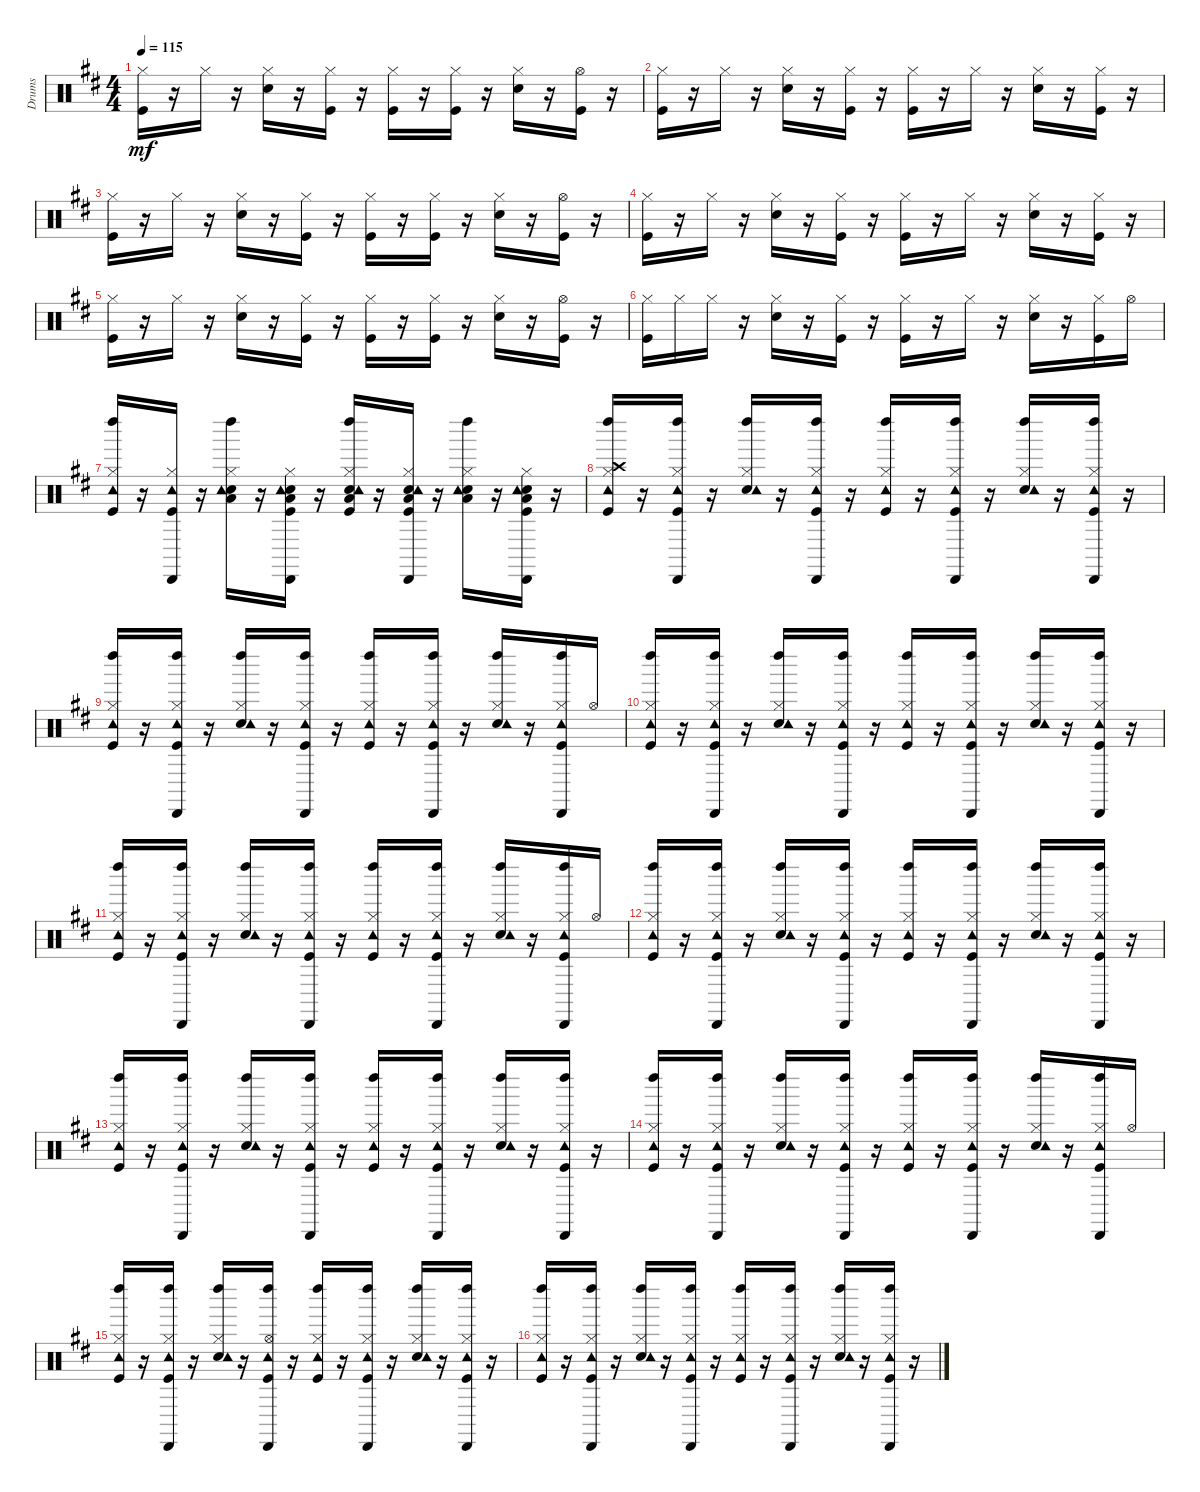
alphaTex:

\track ("Drums" "Drums") {instrument percussion}
\staff {score}
\articulation defaults
\ts (4 4)
\tempo 115
\clef neutral
\ks bminor
("Kick (hit)" "Hi-Hat (closed)").16{dy mf} r.16 "Hi-Hat (closed)".16 r.16 ("Snare (hit) 2" "Hi-Hat (closed)").16 r.16 ("Kick (hit)" "Hi-Hat (closed)").16 r.16 ("Kick (hit)" "Hi-Hat (closed)").16 r.16 ("Kick (hit)" "Hi-Hat (closed)").16 r.16 ("Snare (hit) 2" "Hi-Hat (closed)").16 r.16 ("Kick (hit)" "Hi-Hat (open)").16 r.16 |
("Kick (hit)" "Hi-Hat (closed)").16 r.16 "Hi-Hat (closed)".16 r.16 ("Snare (hit) 2" "Hi-Hat (closed)").16 r.16 ("Kick (hit)" "Hi-Hat (closed)").16 r.16 ("Kick (hit)" "Hi-Hat (closed)").16 r.16 "Hi-Hat (closed)".16 r.16 ("Snare (hit) 2" "Hi-Hat (closed)").16 r.16 ("Kick (hit)" "Hi-Hat (closed)").16 r.16 |
("Kick (hit)" "Hi-Hat (closed)").16 r.16 "Hi-Hat (closed)".16 r.16 ("Snare (hit) 2" "Hi-Hat (closed)").16 r.16 ("Kick (hit)" "Hi-Hat (closed)").16 r.16 ("Kick (hit)" "Hi-Hat (closed)").16 r.16 ("Kick (hit)" "Hi-Hat (closed)").16 r.16 ("Snare (hit) 2" "Hi-Hat (closed)").16 r.16 ("Kick (hit)" "Hi-Hat (open)").16 r.16 |
("Kick (hit)" "Hi-Hat (closed)").16 r.16 "Hi-Hat (closed)".16 r.16 ("Snare (hit) 2" "Hi-Hat (closed)").16 r.16 ("Kick (hit)" "Hi-Hat (closed)").16 r.16 ("Kick (hit)" "Hi-Hat (closed)").16 r.16 "Hi-Hat (closed)".16 r.16 ("Snare (hit) 2" "Hi-Hat (closed)").16 r.16 ("Kick (hit)" "Hi-Hat (closed)").16 r.16 |
("Kick (hit)" "Hi-Hat (closed)").16 r.16 "Hi-Hat (closed)".16 r.16 ("Snare (hit) 2" "Hi-Hat (closed)").16 r.16 ("Kick (hit)" "Hi-Hat (closed)").16 r.16 ("Kick (hit)" "Hi-Hat (closed)").16 r.16 ("Kick (hit)" "Hi-Hat (closed)").16 r.16 ("Snare (hit) 2" "Hi-Hat (closed)").16 r.16 ("Kick (hit)" "Hi-Hat (open)").16 r.16 |
("Kick (hit)" "Hi-Hat (closed)").16 "Hi-Hat (closed)".16 "Hi-Hat (closed)".16 r.16 ("Snare (hit) 2" "Hi-Hat (closed)").16 r.16 ("Kick (hit)" "Hi-Hat (closed)").16 r.16 ("Kick (hit)" "Hi-Hat (closed)").16 r.16 "Hi-Hat (closed)".16 r.16 ("Snare (hit) 2" "Hi-Hat (closed)").16 r.16 ("Kick (hit)" "Hi-Hat (closed)").16 "Hi-Hat (open)".16 |
("Kick (hit)" "Hi-Hat (closed)" "Tambourine (hit)" "Left Maraca (hit)").16 r.16 ("Kick (hit)" "Hi-Hat (closed)" "Tambourine (hit)" "Cabasa (hit)").16 r.16 ("Snare (hit) 2" "Low Floor Tom (hit)" "Hi-Hat (closed)" "Tambourine (hit)" "Left Maraca (hit)").16 r.16 ("Kick (hit)" "Snare (hit) 2" "Low Floor Tom (hit)" "Hi-Hat (closed)" "Tambourine (hit)" "Cabasa (hit)").16 r.16 ("Kick (hit)" "Snare (hit) 2" "Low Floor Tom (hit)" "Hi-Hat (closed)" "Tambourine (hit)" "Left Maraca (hit)").16 r.16 ("Kick (hit)" "Snare (hit) 2" "Low Floor Tom (hit)" "Hi-Hat (closed)" "Tambourine (hit)" "Cabasa (hit)").16 r.16 ("Snare (hit) 2" "Low Floor Tom (hit)" "Hi-Hat (closed)" "Tambourine (hit)" "Left Maraca (hit)").16 r.16 ("Kick (hit)" "Snare (hit) 2" "Low Floor Tom (hit)" "Hi-Hat (closed)" "Tambourine (hit)" "Cabasa (hit)").16 r.16 |
("Kick (hit)" "Hi-Hat (closed)" "Crash high (hit)" "Tambourine (hit)" "Left Maraca (hit)").16 r.16 ("Kick (hit)" "Hi-Hat (closed)" "Tambourine (hit)" "Cabasa (hit)" "Left Maraca (hit)").16 r.16 ("Snare (hit) 2" "Hi-Hat (closed)" "Tambourine (hit)" "Left Maraca (hit)").16 r.16 ("Kick (hit)" "Hi-Hat (closed)" "Tambourine (hit)" "Cabasa (hit)" "Left Maraca (hit)").16 r.16 ("Kick (hit)" "Hi-Hat (closed)" "Tambourine (hit)" "Left Maraca (hit)").16 r.16 ("Kick (hit)" "Hi-Hat (closed)" "Tambourine (hit)" "Cabasa (hit)" "Left Maraca (hit)").16 r.16 ("Snare (hit) 2" "Hi-Hat (closed)" "Tambourine (hit)" "Left Maraca (hit)").16 r.16 ("Kick (hit)" "Hi-Hat (closed)" "Tambourine (hit)" "Cabasa (hit)" "Left Maraca (hit)").16 r.16 |
("Kick (hit)" "Hi-Hat (closed)" "Tambourine (hit)" "Left Maraca (hit)").16 r.16 ("Kick (hit)" "Hi-Hat (closed)" "Tambourine (hit)" "Cabasa (hit)" "Left Maraca (hit)").16 r.16 ("Snare (hit) 2" "Hi-Hat (closed)" "Tambourine (hit)" "Left Maraca (hit)").16 r.16 ("Kick (hit)" "Hi-Hat (closed)" "Tambourine (hit)" "Cabasa (hit)" "Left Maraca (hit)").16 r.16 ("Kick (hit)" "Hi-Hat (closed)" "Tambourine (hit)" "Left Maraca (hit)").16 r.16 ("Kick (hit)" "Hi-Hat (closed)" "Tambourine (hit)" "Cabasa (hit)" "Left Maraca (hit)").16 r.16 ("Snare (hit) 2" "Hi-Hat (closed)" "Tambourine (hit)" "Left Maraca (hit)").16 r.16 ("Kick (hit)" "Hi-Hat (closed)" "Tambourine (hit)" "Cabasa (hit)" "Left Maraca (hit)").16 "Hi-Hat (open)".16 |
("Kick (hit)" "Hi-Hat (closed)" "Tambourine (hit)" "Left Maraca (hit)").16 r.16 ("Kick (hit)" "Hi-Hat (closed)" "Tambourine (hit)" "Cabasa (hit)" "Left Maraca (hit)").16 r.16 ("Snare (hit) 2" "Hi-Hat (closed)" "Tambourine (hit)" "Left Maraca (hit)").16 r.16 ("Kick (hit)" "Hi-Hat (closed)" "Tambourine (hit)" "Cabasa (hit)" "Left Maraca (hit)").16 r.16 ("Kick (hit)" "Hi-Hat (closed)" "Tambourine (hit)" "Left Maraca (hit)").16 r.16 ("Kick (hit)" "Hi-Hat (closed)" "Tambourine (hit)" "Cabasa (hit)" "Left Maraca (hit)").16 r.16 ("Snare (hit) 2" "Hi-Hat (closed)" "Tambourine (hit)" "Left Maraca (hit)").16 r.16 ("Kick (hit)" "Hi-Hat (closed)" "Tambourine (hit)" "Cabasa (hit)" "Left Maraca (hit)").16 r.16 |
("Kick (hit)" "Hi-Hat (closed)" "Tambourine (hit)" "Left Maraca (hit)").16 r.16 ("Kick (hit)" "Hi-Hat (closed)" "Tambourine (hit)" "Cabasa (hit)" "Left Maraca (hit)").16 r.16 ("Snare (hit) 2" "Hi-Hat (closed)" "Tambourine (hit)" "Left Maraca (hit)").16 r.16 ("Kick (hit)" "Hi-Hat (closed)" "Tambourine (hit)" "Cabasa (hit)" "Left Maraca (hit)").16 r.16 ("Kick (hit)" "Hi-Hat (closed)" "Tambourine (hit)" "Left Maraca (hit)").16 r.16 ("Kick (hit)" "Hi-Hat (closed)" "Tambourine (hit)" "Cabasa (hit)" "Left Maraca (hit)").16 r.16 ("Snare (hit) 2" "Hi-Hat (closed)" "Tambourine (hit)" "Left Maraca (hit)").16 r.16 ("Kick (hit)" "Hi-Hat (closed)" "Tambourine (hit)" "Cabasa (hit)" "Left Maraca (hit)").16 "Hi-Hat (open)".16 |
("Kick (hit)" "Hi-Hat (closed)" "Tambourine (hit)" "Left Maraca (hit)").16 r.16 ("Kick (hit)" "Hi-Hat (closed)" "Tambourine (hit)" "Cabasa (hit)" "Left Maraca (hit)").16 r.16 ("Snare (hit) 2" "Hi-Hat (closed)" "Tambourine (hit)" "Left Maraca (hit)").16 r.16 ("Kick (hit)" "Hi-Hat (closed)" "Tambourine (hit)" "Cabasa (hit)" "Left Maraca (hit)").16 r.16 ("Kick (hit)" "Hi-Hat (closed)" "Tambourine (hit)" "Left Maraca (hit)").16 r.16 ("Kick (hit)" "Hi-Hat (closed)" "Tambourine (hit)" "Cabasa (hit)" "Left Maraca (hit)").16 r.16 ("Snare (hit) 2" "Hi-Hat (closed)" "Tambourine (hit)" "Left Maraca (hit)").16 r.16 ("Kick (hit)" "Hi-Hat (closed)" "Tambourine (hit)" "Cabasa (hit)" "Left Maraca (hit)").16 r.16 |
("Kick (hit)" "Hi-Hat (closed)" "Tambourine (hit)" "Left Maraca (hit)").16 r.16 ("Kick (hit)" "Hi-Hat (closed)" "Tambourine (hit)" "Cabasa (hit)" "Left Maraca (hit)").16 r.16 ("Snare (hit) 2" "Hi-Hat (closed)" "Tambourine (hit)" "Left Maraca (hit)").16 r.16 ("Kick (hit)" "Hi-Hat (closed)" "Tambourine (hit)" "Cabasa (hit)" "Left Maraca (hit)").16 r.16 ("Kick (hit)" "Hi-Hat (closed)" "Tambourine (hit)" "Left Maraca (hit)").16 r.16 ("Kick (hit)" "Hi-Hat (closed)" "Tambourine (hit)" "Cabasa (hit)" "Left Maraca (hit)").16 r.16 ("Snare (hit) 2" "Hi-Hat (closed)" "Tambourine (hit)" "Left Maraca (hit)").16 r.16 ("Kick (hit)" "Hi-Hat (closed)" "Tambourine (hit)" "Cabasa (hit)" "Left Maraca (hit)").16 r.16 |
("Kick (hit)" "Hi-Hat (closed)" "Tambourine (hit)" "Left Maraca (hit)").16 r.16 ("Kick (hit)" "Hi-Hat (closed)" "Tambourine (hit)" "Cabasa (hit)" "Left Maraca (hit)").16 r.16 ("Snare (hit) 2" "Hi-Hat (closed)" "Tambourine (hit)" "Left Maraca (hit)").16 r.16 ("Kick (hit)" "Hi-Hat (closed)" "Tambourine (hit)" "Cabasa (hit)" "Left Maraca (hit)").16 r.16 ("Kick (hit)" "Hi-Hat (closed)" "Tambourine (hit)" "Left Maraca (hit)").16 r.16 ("Kick (hit)" "Hi-Hat (closed)" "Tambourine (hit)" "Cabasa (hit)" "Left Maraca (hit)").16 r.16 ("Snare (hit) 2" "Hi-Hat (closed)" "Tambourine (hit)" "Left Maraca (hit)").16 r.16 ("Kick (hit)" "Hi-Hat (closed)" "Tambourine (hit)" "Cabasa (hit)" "Left Maraca (hit)").16 "Hi-Hat (open)".16 |
("Kick (hit)" "Hi-Hat (closed)" "Tambourine (hit)" "Left Maraca (hit)").16 r.16 ("Kick (hit)" "Hi-Hat (closed)" "Tambourine (hit)" "Cabasa (hit)" "Left Maraca (hit)").16 r.16 ("Snare (hit) 2" "Hi-Hat (closed)" "Tambourine (hit)" "Left Maraca (hit)").16 r.16 ("Kick (hit)" "Hi-Hat (open)" "Tambourine (hit)" "Cabasa (hit)" "Left Maraca (hit)").16 r.16 ("Kick (hit)" "Hi-Hat (closed)" "Tambourine (hit)" "Left Maraca (hit)").16 r.16 ("Kick (hit)" "Hi-Hat (closed)" "Tambourine (hit)" "Cabasa (hit)" "Left Maraca (hit)").16 r.16 ("Snare (hit) 2" "Hi-Hat (closed)" "Tambourine (hit)" "Left Maraca (hit)").16 r.16 ("Kick (hit)" "Hi-Hat (closed)" "Tambourine (hit)" "Cabasa (hit)" "Left Maraca (hit)").16 r.16 |
("Kick (hit)" "Hi-Hat (closed)" "Tambourine (hit)" "Left Maraca (hit)").16 r.16 ("Kick (hit)" "Hi-Hat (closed)" "Tambourine (hit)" "Cabasa (hit)" "Left Maraca (hit)").16 r.16 ("Snare (hit) 2" "Hi-Hat (closed)" "Tambourine (hit)" "Left Maraca (hit)").16 r.16 ("Kick (hit)" "Hi-Hat (closed)" "Tambourine (hit)" "Cabasa (hit)" "Left Maraca (hit)").16 r.16 ("Kick (hit)" "Hi-Hat (closed)" "Tambourine (hit)" "Left Maraca (hit)").16 r.16 ("Kick (hit)" "Hi-Hat (closed)" "Tambourine (hit)" "Cabasa (hit)" "Left Maraca (hit)").16 r.16 ("Snare (hit) 2" "Hi-Hat (closed)" "Tambourine (hit)" "Left Maraca (hit)").16 r.16 ("Kick (hit)" "Hi-Hat (closed)" "Tambourine (hit)" "Cabasa (hit)" "Left Maraca (hit)").16 r.16
